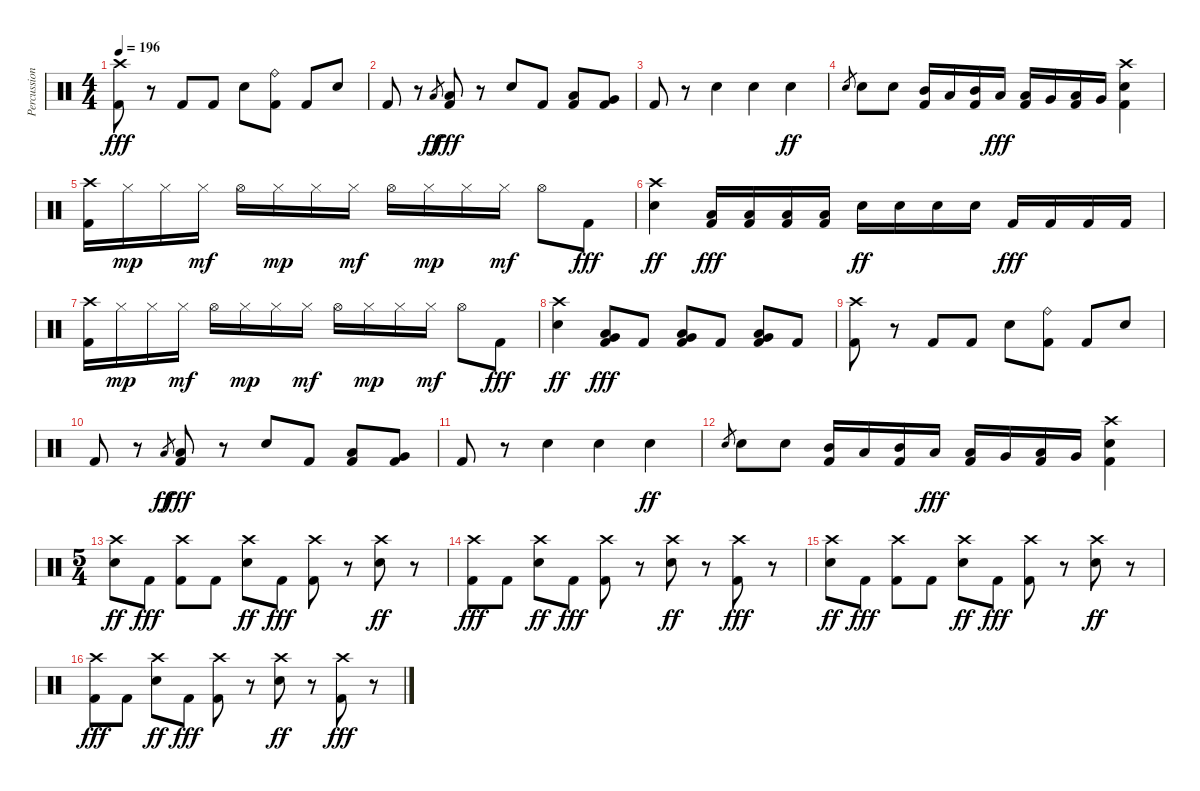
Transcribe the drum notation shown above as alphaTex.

\track ("Percussion" "Percussion") {instrument percussion}
\staff {score}
\articulation defaults
\ts (4 4)
\tempo 196
\clef neutral
\ks c
("Crash high (hit)" "Kick (hit) 2").8{dy fff} r.8 "Kick (hit) 2".8 "Kick (hit) 2".8 "Electric Snare (hit)".8 ("Ride (bell)" "Kick (hit) 2").8 "Kick (hit) 2".8 "Electric Snare (hit)".8 |
"Kick (hit) 2".8 r.8 "Low Tom (hit)".8{gr dy ff} ("Low Tom (hit)" "Kick (hit) 2").8{dy fff} r.8 "Electric Snare (hit)".8 "Kick (hit) 2".8 ("Low Tom (hit)" "Kick (hit) 2").8 ("Very Low Tom (hit)" "Kick (hit) 2").8 |
"Kick (hit) 2".8 r.8 "Electric Snare (hit)".4 "Electric Snare (hit)".4 "Electric Snare (hit)".4{dy ff} |
"Electric Snare (hit)".8{gr} "Electric Snare (hit)".8 "Electric Snare (hit)".8 ("Mid Tom (hit)" "Kick (hit) 2").16 "Low Tom (hit)".16 ("Mid Tom (hit)" "Kick (hit) 2").16 "Low Tom (hit)".16{dy fff} ("Low Tom (hit)" "Kick (hit) 2").16 "Very Low Tom (hit)".16 ("Low Tom (hit)" "Kick (hit) 2").16 "Very Low Tom (hit)".16 ("Crash high (hit)" "Electric Snare (hit)" "Kick (hit) 2").4 |
("Crash high (hit)" "Kick (hit) 2").16 "Hi-Hat (closed)".16{dy mp} "Hi-Hat (closed)".16 "Hi-Hat (closed)".16{dy mf} "Hi-Hat (open)".16 "Hi-Hat (closed)".16{dy mp} "Hi-Hat (closed)".16 "Hi-Hat (closed)".16{dy mf} "Hi-Hat (open)".16 "Hi-Hat (closed)".16{dy mp} "Hi-Hat (closed)".16 "Hi-Hat (closed)".16{dy mf} "Hi-Hat (open)".8 "Kick (hit) 2".8{dy fff} |
("Crash high (hit)" "Electric Snare (hit)").4{dy ff} ("Low Tom (hit)" "Kick (hit) 2").16{dy fff} ("Low Tom (hit)" "Kick (hit) 2").16 ("Low Tom (hit)" "Kick (hit) 2").16 ("Low Tom (hit)" "Kick (hit) 2").16 "Electric Snare (hit)".16{dy ff} "Electric Snare (hit)".16 "Electric Snare (hit)".16 "Electric Snare (hit)".16 "Kick (hit) 2".16{dy fff} "Kick (hit) 2".16 "Kick (hit) 2".16 "Kick (hit) 2".16 |
("Crash high (hit)" "Kick (hit) 2").16 "Hi-Hat (closed)".16{dy mp} "Hi-Hat (closed)".16 "Hi-Hat (closed)".16{dy mf} "Hi-Hat (open)".16 "Hi-Hat (closed)".16{dy mp} "Hi-Hat (closed)".16 "Hi-Hat (closed)".16{dy mf} "Hi-Hat (open)".16 "Hi-Hat (closed)".16{dy mp} "Hi-Hat (closed)".16 "Hi-Hat (closed)".16{dy mf} "Hi-Hat (open)".8 "Kick (hit) 2".8{dy fff} |
("Crash high (hit)" "Electric Snare (hit)").4{dy ff} ("Low Tom (hit)" "Very Low Tom (hit)" "Kick (hit) 2").8{dy fff} "Kick (hit) 2".8 ("Low Tom (hit)" "Very Low Tom (hit)" "Kick (hit) 2").8 "Kick (hit) 2".8 ("Low Tom (hit)" "Very Low Tom (hit)" "Kick (hit) 2").8 "Kick (hit) 2".8 |
("Crash high (hit)" "Kick (hit) 2").8 r.8 "Kick (hit) 2".8 "Kick (hit) 2".8 "Electric Snare (hit)".8 ("Ride (bell)" "Kick (hit) 2").8 "Kick (hit) 2".8 "Electric Snare (hit)".8 |
"Kick (hit) 2".8 r.8 "Low Tom (hit)".8{gr dy ff} ("Low Tom (hit)" "Kick (hit) 2").8{dy fff} r.8 "Electric Snare (hit)".8 "Kick (hit) 2".8 ("Low Tom (hit)" "Kick (hit) 2").8 ("Very Low Tom (hit)" "Kick (hit) 2").8 |
"Kick (hit) 2".8 r.8 "Electric Snare (hit)".4 "Electric Snare (hit)".4 "Electric Snare (hit)".4{dy ff} |
"Electric Snare (hit)".8{gr} "Electric Snare (hit)".8 "Electric Snare (hit)".8 ("Mid Tom (hit)" "Kick (hit) 2").16 "Low Tom (hit)".16 ("Mid Tom (hit)" "Kick (hit) 2").16 "Low Tom (hit)".16{dy fff} ("Low Tom (hit)" "Kick (hit) 2").16 "Very Low Tom (hit)".16 ("Low Tom (hit)" "Kick (hit) 2").16 "Very Low Tom (hit)".16 ("Crash high (hit)" "Electric Snare (hit)" "Kick (hit) 2").4 |
\ts (5 4)
("Crash high (hit)" "Electric Snare (hit)").8{dy ff} "Kick (hit) 2".8{dy fff} ("Crash high (hit)" "Kick (hit) 2").8 "Kick (hit) 2".8 ("Crash high (hit)" "Electric Snare (hit)").8{dy ff} "Kick (hit) 2".8{dy fff} ("Crash high (hit)" "Kick (hit) 2").8 r.8 ("Crash high (hit)" "Electric Snare (hit)").8{dy ff} r.8 |
("Crash high (hit)" "Kick (hit) 2").8{dy fff} "Kick (hit) 2".8 ("Crash high (hit)" "Electric Snare (hit)").8{dy ff} "Kick (hit) 2".8{dy fff} ("Crash high (hit)" "Kick (hit) 2").8 r.8 ("Crash high (hit)" "Electric Snare (hit)").8{dy ff} r.8 ("Crash high (hit)" "Kick (hit) 2").8{dy fff} r.8 |
("Crash high (hit)" "Electric Snare (hit)").8{dy ff} "Kick (hit) 2".8{dy fff} ("Crash high (hit)" "Kick (hit) 2").8 "Kick (hit) 2".8 ("Crash high (hit)" "Electric Snare (hit)").8{dy ff} "Kick (hit) 2".8{dy fff} ("Crash high (hit)" "Kick (hit) 2").8 r.8 ("Crash high (hit)" "Electric Snare (hit)").8{dy ff} r.8 |
("Crash high (hit)" "Kick (hit) 2").8{dy fff} "Kick (hit) 2".8 ("Crash high (hit)" "Electric Snare (hit)").8{dy ff} "Kick (hit) 2".8{dy fff} ("Crash high (hit)" "Kick (hit) 2").8 r.8 ("Crash high (hit)" "Electric Snare (hit)").8{dy ff} r.8 ("Crash high (hit)" "Kick (hit) 2").8{dy fff} r.8
